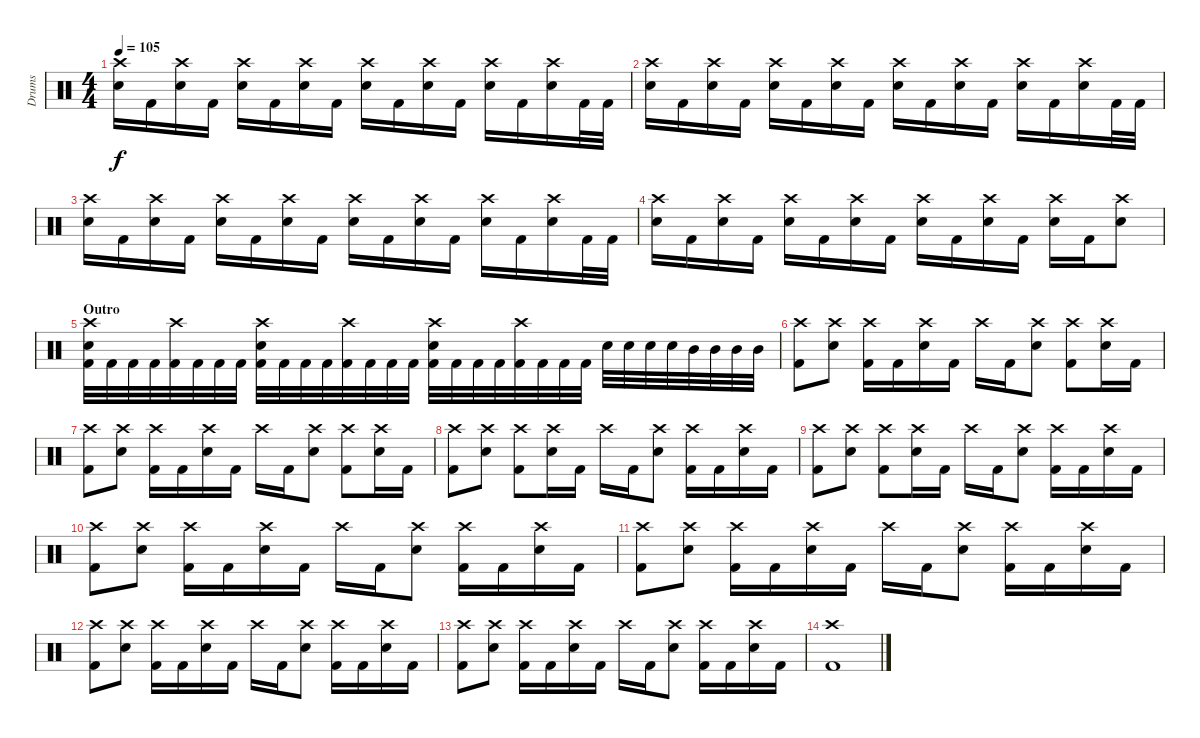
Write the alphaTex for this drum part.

\track ("Drums" "Drums") {instrument percussion}
\staff {score}
\articulation defaults
\ts (4 4)
\tempo 105
\clef neutral
\ks c
("Crash high (hit)" "Electric Snare (hit)").16{dy f} "Kick (hit) 2".16 ("Crash high (hit)" "Electric Snare (hit)").16 "Kick (hit) 2".16 ("Crash high (hit)" "Electric Snare (hit)").16 "Kick (hit) 2".16 ("Crash high (hit)" "Electric Snare (hit)").16 "Kick (hit) 2".16 ("Crash high (hit)" "Electric Snare (hit)").16 "Kick (hit) 2".16 ("Crash high (hit)" "Electric Snare (hit)").16 "Kick (hit) 2".16 ("Crash high (hit)" "Electric Snare (hit)").16 "Kick (hit) 2".16 ("Crash high (hit)" "Electric Snare (hit)").16 "Kick (hit) 2".32 "Kick (hit) 2".32 |
("Crash high (hit)" "Electric Snare (hit)").16 "Kick (hit) 2".16 ("Crash high (hit)" "Electric Snare (hit)").16 "Kick (hit) 2".16 ("Crash high (hit)" "Electric Snare (hit)").16 "Kick (hit) 2".16 ("Crash high (hit)" "Electric Snare (hit)").16 "Kick (hit) 2".16 ("Crash high (hit)" "Electric Snare (hit)").16 "Kick (hit) 2".16 ("Crash high (hit)" "Electric Snare (hit)").16 "Kick (hit) 2".16 ("Crash high (hit)" "Electric Snare (hit)").16 "Kick (hit) 2".16 ("Crash high (hit)" "Electric Snare (hit)").16 "Kick (hit) 2".32 "Kick (hit) 2".32 |
("Crash high (hit)" "Electric Snare (hit)").16 "Kick (hit) 2".16 ("Crash high (hit)" "Electric Snare (hit)").16 "Kick (hit) 2".16 ("Crash high (hit)" "Electric Snare (hit)").16 "Kick (hit) 2".16 ("Crash high (hit)" "Electric Snare (hit)").16 "Kick (hit) 2".16 ("Crash high (hit)" "Electric Snare (hit)").16 "Kick (hit) 2".16 ("Crash high (hit)" "Electric Snare (hit)").16 "Kick (hit) 2".16 ("Crash high (hit)" "Electric Snare (hit)").16 "Kick (hit) 2".16 ("Crash high (hit)" "Electric Snare (hit)").16 "Kick (hit) 2".32 "Kick (hit) 2".32 |
("Crash high (hit)" "Electric Snare (hit)").16 "Kick (hit) 2".16 ("Crash high (hit)" "Electric Snare (hit)").16 "Kick (hit) 2".16 ("Crash high (hit)" "Electric Snare (hit)").16 "Kick (hit) 2".16 ("Crash high (hit)" "Electric Snare (hit)").16 "Kick (hit) 2".16 ("Crash high (hit)" "Electric Snare (hit)").16 "Kick (hit) 2".16 ("Crash high (hit)" "Electric Snare (hit)").16 "Kick (hit) 2".16 ("Crash high (hit)" "Electric Snare (hit)").16 "Kick (hit) 2".16 ("Crash high (hit)" "Electric Snare (hit)").8 |
\section ("" "Outro")
("Crash high (hit)" "Electric Snare (hit)" "Kick (hit) 2").32 "Kick (hit) 2".32 "Kick (hit) 2".32 "Kick (hit) 2".32 ("Crash high (hit)" "Kick (hit) 2").32 "Kick (hit) 2".32 "Kick (hit) 2".32 "Kick (hit) 2".32 ("Crash high (hit)" "Electric Snare (hit)" "Kick (hit) 2").32 "Kick (hit) 2".32 "Kick (hit) 2".32 "Kick (hit) 2".32 ("Crash high (hit)" "Kick (hit) 2").32 "Kick (hit) 2".32 "Kick (hit) 2".32 "Kick (hit) 2".32 ("Crash high (hit)" "Electric Snare (hit)" "Kick (hit) 2").32 "Kick (hit) 2".32 "Kick (hit) 2".32 "Kick (hit) 2".32 ("Crash high (hit)" "Kick (hit) 2").32 "Kick (hit) 2".32 "Kick (hit) 2".32 "Kick (hit) 2".32 "Electric Snare (hit)".32 "Electric Snare (hit)".32 "Electric Snare (hit)".32 "Electric Snare (hit)".32 "Mid Tom (hit)".32 "Mid Tom (hit)".32 "Mid Tom (hit)".32 "Mid Tom (hit)".32 |
("Crash high (hit)" "Kick (hit) 2").8 ("Crash high (hit)" "Electric Snare (hit)").8 ("Crash high (hit)" "Kick (hit) 2").16 "Kick (hit) 2".16 ("Crash high (hit)" "Electric Snare (hit)").16 "Kick (hit) 2".16 "Crash high (hit)".16 "Kick (hit) 2".16 ("Crash high (hit)" "Electric Snare (hit)").8 ("Crash high (hit)" "Kick (hit) 2").8 ("Crash high (hit)" "Electric Snare (hit)").16 "Kick (hit) 2".16 |
("Crash high (hit)" "Kick (hit) 2").8 ("Crash high (hit)" "Electric Snare (hit)").8 ("Crash high (hit)" "Kick (hit) 2").16 "Kick (hit) 2".16 ("Crash high (hit)" "Electric Snare (hit)").16 "Kick (hit) 2".16 "Crash high (hit)".16 "Kick (hit) 2".16 ("Crash high (hit)" "Electric Snare (hit)").8 ("Crash high (hit)" "Kick (hit) 2").8 ("Crash high (hit)" "Electric Snare (hit)").16 "Kick (hit) 2".16 |
("Crash high (hit)" "Kick (hit) 2").8 ("Crash high (hit)" "Electric Snare (hit)").8 ("Crash high (hit)" "Kick (hit) 2").8 ("Crash high (hit)" "Electric Snare (hit)").16 "Kick (hit) 2".16 "Crash high (hit)".16 "Kick (hit) 2".16 ("Crash high (hit)" "Electric Snare (hit)").8 ("Crash high (hit)" "Kick (hit) 2").16 "Kick (hit) 2".16 ("Crash high (hit)" "Electric Snare (hit)").16 "Kick (hit) 2".16 |
("Crash high (hit)" "Kick (hit) 2").8 ("Crash high (hit)" "Electric Snare (hit)").8 ("Crash high (hit)" "Kick (hit) 2").8 ("Crash high (hit)" "Electric Snare (hit)").16 "Kick (hit) 2".16 "Crash high (hit)".16 "Kick (hit) 2".16 ("Crash high (hit)" "Electric Snare (hit)").8 ("Crash high (hit)" "Kick (hit) 2").16 "Kick (hit) 2".16 ("Crash high (hit)" "Electric Snare (hit)").16 "Kick (hit) 2".16 |
("Crash high (hit)" "Kick (hit) 2").8 ("Crash high (hit)" "Electric Snare (hit)").8 ("Crash high (hit)" "Kick (hit) 2").16 "Kick (hit) 2".16 ("Crash high (hit)" "Electric Snare (hit)").16 "Kick (hit) 2".16 "Crash high (hit)".16 "Kick (hit) 2".16 ("Crash high (hit)" "Electric Snare (hit)").8 ("Crash high (hit)" "Kick (hit) 2").16 "Kick (hit) 2".16 ("Crash high (hit)" "Electric Snare (hit)").16 "Kick (hit) 2".16 |
("Crash high (hit)" "Kick (hit) 2").8 ("Crash high (hit)" "Electric Snare (hit)").8 ("Crash high (hit)" "Kick (hit) 2").16 "Kick (hit) 2".16 ("Crash high (hit)" "Electric Snare (hit)").16 "Kick (hit) 2".16 "Crash high (hit)".16 "Kick (hit) 2".16 ("Crash high (hit)" "Electric Snare (hit)").8 ("Crash high (hit)" "Kick (hit) 2").16 "Kick (hit) 2".16 ("Crash high (hit)" "Electric Snare (hit)").16 "Kick (hit) 2".16 |
("Crash high (hit)" "Kick (hit) 2").8 ("Crash high (hit)" "Electric Snare (hit)").8 ("Crash high (hit)" "Kick (hit) 2").16 "Kick (hit) 2".16 ("Crash high (hit)" "Electric Snare (hit)").16 "Kick (hit) 2".16 "Crash high (hit)".16 "Kick (hit) 2".16 ("Crash high (hit)" "Electric Snare (hit)").8 ("Crash high (hit)" "Kick (hit) 2").16 "Kick (hit) 2".16 ("Crash high (hit)" "Electric Snare (hit)").16 "Kick (hit) 2".16 |
("Crash high (hit)" "Kick (hit) 2").8 ("Crash high (hit)" "Electric Snare (hit)").8 ("Crash high (hit)" "Kick (hit) 2").16 "Kick (hit) 2".16 ("Crash high (hit)" "Electric Snare (hit)").16 "Kick (hit) 2".16 "Crash high (hit)".16 "Kick (hit) 2".16 ("Crash high (hit)" "Electric Snare (hit)").8 ("Crash high (hit)" "Kick (hit) 2").16 "Kick (hit) 2".16 ("Crash high (hit)" "Electric Snare (hit)").16 "Kick (hit) 2".16 |
("Crash high (hit)" "Kick (hit) 2").1
